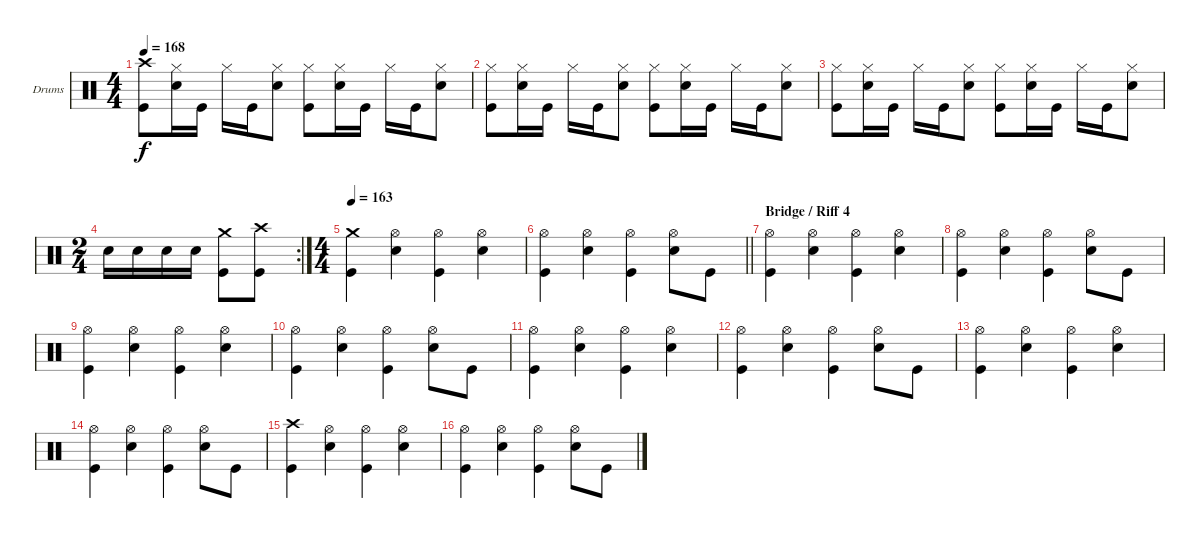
\bracketExtendMode groupsimilarinstruments
\firstSystemTrackNameOrientation horizontal
\otherSystemsTrackNameOrientation horizontal
\track ("Drumkit" "Drums") {instrument percussion}
\staff {score}
\articulation defaults
\ts (4 4)
\tempo 168
\clef neutral
\ks c
("Crash high (hit)" "Kick (hit)").8{dy f} ("Hi-Hat (closed)" "Snare (hit) 2").16 "Kick (hit)".16 "Hi-Hat (closed)".16 "Kick (hit)".16 ("Hi-Hat (closed)" "Snare (hit) 2").8 ("Hi-Hat (closed)" "Kick (hit)").8 ("Hi-Hat (closed)" "Snare (hit) 2").16 "Kick (hit)".16 "Hi-Hat (closed)".16 "Kick (hit)".16 ("Hi-Hat (closed)" "Snare (hit) 2").8 |
("Hi-Hat (closed)" "Kick (hit)").8 ("Hi-Hat (closed)" "Snare (hit) 2").16 "Kick (hit)".16 "Hi-Hat (closed)".16 "Kick (hit)".16 ("Hi-Hat (closed)" "Snare (hit) 2").8 ("Hi-Hat (closed)" "Kick (hit)").8 ("Hi-Hat (closed)" "Snare (hit) 2").16 "Kick (hit)".16 "Hi-Hat (closed)".16 "Kick (hit)".16 ("Hi-Hat (closed)" "Snare (hit) 2").8 |
("Hi-Hat (closed)" "Kick (hit)").8 ("Hi-Hat (closed)" "Snare (hit) 2").16 "Kick (hit)".16 "Hi-Hat (closed)".16 "Kick (hit)".16 ("Hi-Hat (closed)" "Snare (hit) 2").8 ("Hi-Hat (closed)" "Kick (hit)").8 ("Hi-Hat (closed)" "Snare (hit) 2").16 "Kick (hit)".16 "Hi-Hat (closed)".16 "Kick (hit)".16 ("Hi-Hat (closed)" "Snare (hit) 2").8 |
\rc 2
\ts (2 4)
\beaming (8 2 2)
"Snare (hit) 2".16 "Snare (hit) 2".16 "Snare (hit) 2".16 "Snare (hit) 2".16 ("Crash medium (hit)" "Kick (hit)").8 ("Crash high (hit)" "Kick (hit)").8 |
\ts (4 4)
\beaming (8 2 2 2 2)
\tempo 163
("Crash medium (hit)" "Kick (hit)").4 ("Hi-Hat (open)" "Snare (hit) 2").4 ("Hi-Hat (open)" "Kick (hit)").4 ("Hi-Hat (open)" "Snare (hit) 2").4 |
\barLineRight lightlight
("Hi-Hat (open)" "Kick (hit)").4 ("Hi-Hat (open)" "Snare (hit) 2").4 ("Hi-Hat (open)" "Kick (hit)").4 ("Hi-Hat (open)" "Snare (hit) 2").8 "Kick (hit)".8 |
\section ("" "Bridge / Riff 4")
("Hi-Hat (open)" "Kick (hit)").4 ("Hi-Hat (open)" "Snare (hit) 2").4 ("Hi-Hat (open)" "Kick (hit)").4 ("Hi-Hat (open)" "Snare (hit) 2").4 |
("Hi-Hat (open)" "Kick (hit)").4 ("Hi-Hat (open)" "Snare (hit) 2").4 ("Hi-Hat (open)" "Kick (hit)").4 ("Hi-Hat (open)" "Snare (hit) 2").8 "Kick (hit)".8 |
("Hi-Hat (open)" "Kick (hit)").4 ("Hi-Hat (open)" "Snare (hit) 2").4 ("Hi-Hat (open)" "Kick (hit)").4 ("Hi-Hat (open)" "Snare (hit) 2").4 |
("Hi-Hat (open)" "Kick (hit)").4 ("Hi-Hat (open)" "Snare (hit) 2").4 ("Hi-Hat (open)" "Kick (hit)").4 ("Hi-Hat (open)" "Snare (hit) 2").8 "Kick (hit)".8 |
("Hi-Hat (open)" "Kick (hit)").4 ("Hi-Hat (open)" "Snare (hit) 2").4 ("Hi-Hat (open)" "Kick (hit)").4 ("Hi-Hat (open)" "Snare (hit) 2").4 |
("Hi-Hat (open)" "Kick (hit)").4 ("Hi-Hat (open)" "Snare (hit) 2").4 ("Hi-Hat (open)" "Kick (hit)").4 ("Hi-Hat (open)" "Snare (hit) 2").8 "Kick (hit)".8 |
("Hi-Hat (open)" "Kick (hit)").4 ("Hi-Hat (open)" "Snare (hit) 2").4 ("Hi-Hat (open)" "Kick (hit)").4 ("Hi-Hat (open)" "Snare (hit) 2").4 |
("Hi-Hat (open)" "Kick (hit)").4 ("Hi-Hat (open)" "Snare (hit) 2").4 ("Hi-Hat (open)" "Kick (hit)").4 ("Hi-Hat (open)" "Snare (hit) 2").8 "Kick (hit)".8 |
("Crash high (hit)" "Kick (hit)").4 ("Hi-Hat (open)" "Snare (hit) 2").4 ("Hi-Hat (open)" "Kick (hit)").4 ("Hi-Hat (open)" "Snare (hit) 2").4 |
("Hi-Hat (open)" "Kick (hit)").4 ("Hi-Hat (open)" "Snare (hit) 2").4 ("Hi-Hat (open)" "Kick (hit)").4 ("Hi-Hat (open)" "Snare (hit) 2").8 "Kick (hit)".8
